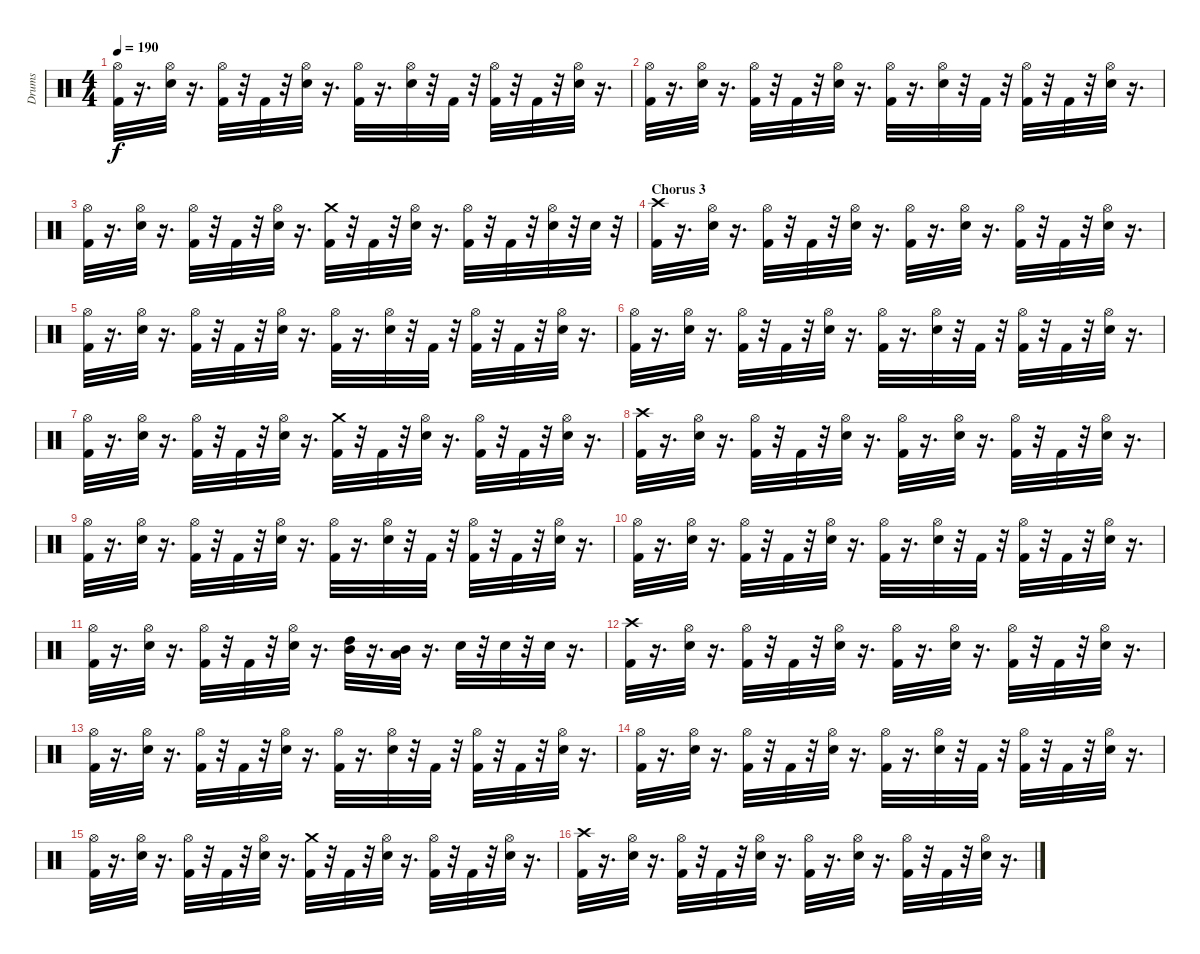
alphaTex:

\track ("Drums" "Drums") {instrument percussion}
\staff {score}
\articulation defaults
\ts (4 4)
\tempo 190
\clef neutral
\ks c
("Hi-Hat (open)" "Kick (hit) 2").32{dy f} r.16{d} ("Snare (hit) 2" "Hi-Hat (open)").32 r.16{d} ("Kick (hit) 2" "Hi-Hat (open)").32 r.32 "Kick (hit) 2".32 r.32 ("Hi-Hat (open)" "Snare (hit) 2").32 r.16{d} ("Kick (hit) 2" "Hi-Hat (open)").32 r.16{d} ("Snare (hit) 2" "Hi-Hat (open)").32 r.32 "Kick (hit) 2".32 r.32 ("Hi-Hat (open)" "Kick (hit) 2").32 r.32 "Kick (hit) 2".32 r.32 ("Hi-Hat (open)" "Snare (hit) 2").32 r.16{d} |
("Kick (hit) 2" "Hi-Hat (open)").32 r.16{d} ("Hi-Hat (open)" "Snare (hit) 2").32 r.16{d} ("Hi-Hat (open)" "Kick (hit) 2").32 r.32 "Kick (hit) 2".32 r.32 ("Hi-Hat (open)" "Snare (hit) 2").32 r.16{d} ("Hi-Hat (open)" "Kick (hit) 2").32 r.16{d} ("Snare (hit) 2" "Hi-Hat (open)").32 r.32 "Kick (hit) 2".32 r.32 ("Kick (hit) 2" "Hi-Hat (open)").32 r.32 "Kick (hit) 2".32 r.32 ("Hi-Hat (open)" "Snare (hit) 2").32 r.16{d} |
("Hi-Hat (open)" "Kick (hit) 2").32 r.16{d} ("Snare (hit) 2" "Hi-Hat (open)").32 r.16{d} ("Kick (hit) 2" "Hi-Hat (open)").32 r.32 "Kick (hit) 2".32 r.32 ("Hi-Hat (open)" "Snare (hit) 2").32 r.16{d} ("Crash medium (hit)" "Kick (hit) 2").32 r.32 "Kick (hit) 2".32 r.32 ("Hi-Hat (open)" "Snare (hit) 2").32 r.16{d} ("Kick (hit) 2" "Hi-Hat (open)").32 r.32 "Kick (hit) 2".32 r.32 ("Snare (hit) 2" "Hi-Hat (open)").32 r.32 "Snare (hit) 2".32 r.32 |
\section ("" "Chorus 3")
("Kick (hit) 2" "Crash high (hit)").32 r.16{d} ("Snare (hit) 2" "Hi-Hat (open)").32 r.16{d} ("Hi-Hat (open)" "Kick (hit) 2").32 r.32 "Kick (hit) 2".32 r.32 ("Hi-Hat (open)" "Snare (hit) 2").32 r.16{d} ("Kick (hit) 2" "Hi-Hat (open)").32 r.16{d} ("Hi-Hat (open)" "Snare (hit) 2").32 r.16{d} ("Hi-Hat (open)" "Kick (hit) 2").32 r.32 "Kick (hit) 2".32 r.32 ("Snare (hit) 2" "Hi-Hat (open)").32 r.16{d} |
("Hi-Hat (open)" "Kick (hit) 2").32 r.16{d} ("Hi-Hat (open)" "Snare (hit) 2").32 r.16{d} ("Hi-Hat (open)" "Kick (hit) 2").32 r.32 "Kick (hit) 2".32 r.32 ("Snare (hit) 2" "Hi-Hat (open)").32 r.16{d} ("Kick (hit) 2" "Hi-Hat (open)").32 r.16{d} ("Hi-Hat (open)" "Snare (hit) 2").32 r.32 "Kick (hit) 2".32 r.32 ("Kick (hit) 2" "Hi-Hat (open)").32 r.32 "Kick (hit) 2".32 r.32 ("Hi-Hat (open)" "Snare (hit) 2").32 r.16{d} |
("Hi-Hat (open)" "Kick (hit) 2").32 r.16{d} ("Hi-Hat (open)" "Snare (hit) 2").32 r.16{d} ("Kick (hit) 2" "Hi-Hat (open)").32 r.32 "Kick (hit) 2".32 r.32 ("Snare (hit) 2" "Hi-Hat (open)").32 r.16{d} ("Kick (hit) 2" "Hi-Hat (open)").32 r.16{d} ("Snare (hit) 2" "Hi-Hat (open)").32 r.32 "Kick (hit) 2".32 r.32 ("Kick (hit) 2" "Hi-Hat (open)").32 r.32 "Kick (hit) 2".32 r.32 ("Snare (hit) 2" "Hi-Hat (open)").32 r.16{d} |
("Kick (hit) 2" "Hi-Hat (open)").32 r.16{d} ("Snare (hit) 2" "Hi-Hat (open)").32 r.16{d} ("Hi-Hat (open)" "Kick (hit) 2").32 r.32 "Kick (hit) 2".32 r.32 ("Snare (hit) 2" "Hi-Hat (open)").32 r.16{d} ("Crash medium (hit)" "Kick (hit) 2").32 r.32 "Kick (hit) 2".32 r.32 ("Snare (hit) 2" "Hi-Hat (open)").32 r.16{d} ("Hi-Hat (open)" "Kick (hit) 2").32 r.32 "Kick (hit) 2".32 r.32 ("Snare (hit) 2" "Hi-Hat (open)").32 r.16{d} |
("Crash high (hit)" "Kick (hit) 2").32 r.16{d} ("Hi-Hat (open)" "Snare (hit) 2").32 r.16{d} ("Hi-Hat (open)" "Kick (hit) 2").32 r.32 "Kick (hit) 2".32 r.32 ("Snare (hit) 2" "Hi-Hat (open)").32 r.16{d} ("Kick (hit) 2" "Hi-Hat (open)").32 r.16{d} ("Snare (hit) 2" "Hi-Hat (open)").32 r.16{d} ("Hi-Hat (open)" "Kick (hit) 2").32 r.32 "Kick (hit) 2".32 r.32 ("Hi-Hat (open)" "Snare (hit) 2").32 r.16{d} |
("Kick (hit) 2" "Hi-Hat (open)").32 r.16{d} ("Snare (hit) 2" "Hi-Hat (open)").32 r.16{d} ("Kick (hit) 2" "Hi-Hat (open)").32 r.32 "Kick (hit) 2".32 r.32 ("Hi-Hat (open)" "Snare (hit) 2").32 r.16{d} ("Hi-Hat (open)" "Kick (hit) 2").32 r.16{d} ("Hi-Hat (open)" "Snare (hit) 2").32 r.32 "Kick (hit) 2".32 r.32 ("Kick (hit) 2" "Hi-Hat (open)").32 r.32 "Kick (hit) 2".32 r.32 ("Snare (hit) 2" "Hi-Hat (open)").32 r.16{d} |
("Kick (hit) 2" "Hi-Hat (open)").32 r.16{d} ("Snare (hit) 2" "Hi-Hat (open)").32 r.16{d} ("Hi-Hat (open)" "Kick (hit) 2").32 r.32 "Kick (hit) 2".32 r.32 ("Hi-Hat (open)" "Snare (hit) 2").32 r.16{d} ("Kick (hit) 2" "Hi-Hat (open)").32 r.16{d} ("Snare (hit) 2" "Hi-Hat (open)").32 r.32 "Kick (hit) 2".32 r.32 ("Hi-Hat (open)" "Kick (hit) 2").32 r.32 "Kick (hit) 2".32 r.32 ("Snare (hit) 2" "Hi-Hat (open)").32 r.16{d} |
("Kick (hit) 2" "Hi-Hat (open)").32 r.16{d} ("Snare (hit) 2" "Hi-Hat (open)").32 r.16{d} ("Hi-Hat (open)" "Kick (hit) 2").32 r.32 "Kick (hit) 2".32 r.32 ("Snare (hit) 2" "Hi-Hat (open)").32 r.16{d} ("High Tom (hit)" "Mid Tom (hit)").32 r.16{d} ("Mid Tom (hit)" "Low Tom (hit)").32 r.16{d} "Snare (hit) 2".32 r.32 "Snare (hit) 2".32 r.32 "Snare (hit) 2".32 r.16{d} |
("Crash high (hit)" "Kick (hit) 2").32 r.16{d} ("Snare (hit) 2" "Hi-Hat (open)").32 r.16{d} ("Kick (hit) 2" "Hi-Hat (open)").32 r.32 "Kick (hit) 2".32 r.32 ("Hi-Hat (open)" "Snare (hit) 2").32 r.16{d} ("Hi-Hat (open)" "Kick (hit) 2").32 r.16{d} ("Hi-Hat (open)" "Snare (hit) 2").32 r.16{d} ("Hi-Hat (open)" "Kick (hit) 2").32 r.32 "Kick (hit) 2".32 r.32 ("Hi-Hat (open)" "Snare (hit) 2").32 r.16{d} |
("Hi-Hat (open)" "Kick (hit) 2").32 r.16{d} ("Hi-Hat (open)" "Snare (hit) 2").32 r.16{d} ("Hi-Hat (open)" "Kick (hit) 2").32 r.32 "Kick (hit) 2".32 r.32 ("Hi-Hat (open)" "Snare (hit) 2").32 r.16{d} ("Hi-Hat (open)" "Kick (hit) 2").32 r.16{d} ("Hi-Hat (open)" "Snare (hit) 2").32 r.32 "Kick (hit) 2".32 r.32 ("Hi-Hat (open)" "Kick (hit) 2").32 r.32 "Kick (hit) 2".32 r.32 ("Snare (hit) 2" "Hi-Hat (open)").32 r.16{d} |
("Kick (hit) 2" "Hi-Hat (open)").32 r.16{d} ("Hi-Hat (open)" "Snare (hit) 2").32 r.16{d} ("Kick (hit) 2" "Hi-Hat (open)").32 r.32 "Kick (hit) 2".32 r.32 ("Snare (hit) 2" "Hi-Hat (open)").32 r.16{d} ("Kick (hit) 2" "Hi-Hat (open)").32 r.16{d} ("Snare (hit) 2" "Hi-Hat (open)").32 r.32 "Kick (hit) 2".32 r.32 ("Kick (hit) 2" "Hi-Hat (open)").32 r.32 "Kick (hit) 2".32 r.32 ("Snare (hit) 2" "Hi-Hat (open)").32 r.16{d} |
("Kick (hit) 2" "Hi-Hat (open)").32 r.16{d} ("Snare (hit) 2" "Hi-Hat (open)").32 r.16{d} ("Kick (hit) 2" "Hi-Hat (open)").32 r.32 "Kick (hit) 2".32 r.32 ("Hi-Hat (open)" "Snare (hit) 2").32 r.16{d} ("Crash medium (hit)" "Kick (hit) 2").32 r.32 "Kick (hit) 2".32 r.32 ("Hi-Hat (open)" "Snare (hit) 2").32 r.16{d} ("Kick (hit) 2" "Hi-Hat (open)").32 r.32 "Kick (hit) 2".32 r.32 ("Hi-Hat (open)" "Snare (hit) 2").32 r.16{d} |
("Kick (hit) 2" "Crash high (hit)").32 r.16{d} ("Hi-Hat (open)" "Snare (hit) 2").32 r.16{d} ("Hi-Hat (open)" "Kick (hit) 2").32 r.32 "Kick (hit) 2".32 r.32 ("Snare (hit) 2" "Hi-Hat (open)").32 r.16{d} ("Hi-Hat (open)" "Kick (hit) 2").32 r.16{d} ("Snare (hit) 2" "Hi-Hat (open)").32 r.16{d} ("Hi-Hat (open)" "Kick (hit) 2").32 r.32 "Kick (hit) 2".32 r.32 ("Hi-Hat (open)" "Snare (hit) 2").32 r.16{d}
